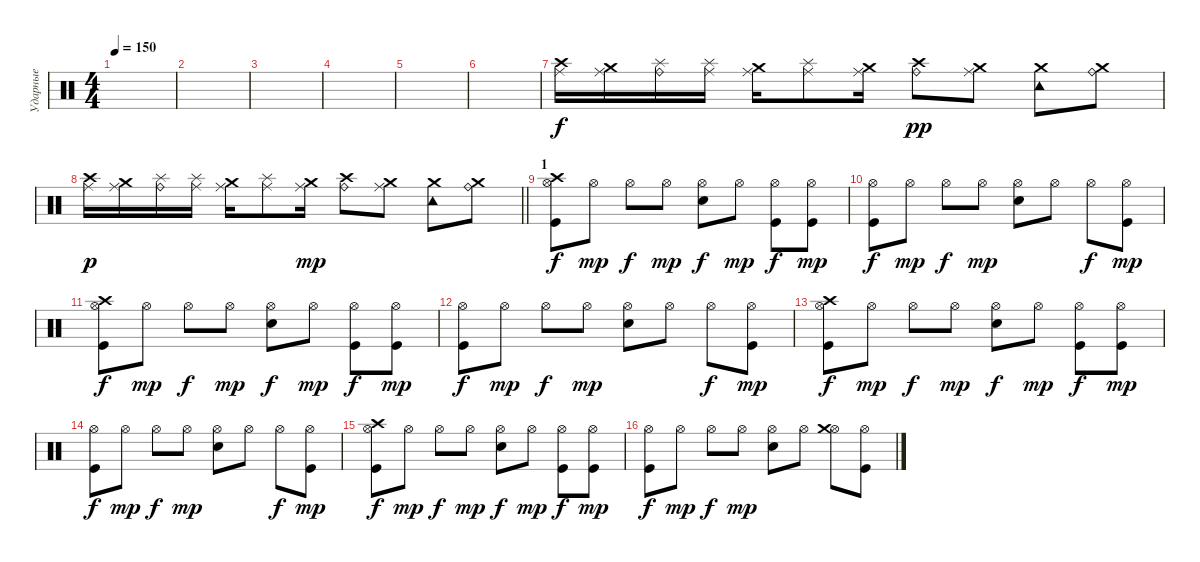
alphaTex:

\track ("Ударные" "Ударные") {instrument percussion}
\staff {score}
\articulation defaults
\ts (4 4)
\tempo 150
\clef neutral
\ks c
|
|
|
|
|
|
("Ride (middle)" "Crash high (hit)").16 ("Crash medium (hit)" "Ride (middle)").16 ("Splash (hit)" "Ride (bell)").16 ("Splash (hit)" "Ride (middle)").16 ("Crash medium (hit)" "Ride (middle)").16 ("Splash (hit)" "Ride (middle)").8 ("Crash medium (hit)" "Ride (middle)").16 ("Crash high (hit)" "Ride (bell)").8{dy pp} ("Crash medium (hit)" "Ride (middle)").8 ("Crash medium (hit)" "Tambourine (hit)").8 ("Crash medium (hit)" "Ride (bell)").8 |
\barLineRight lightlight
("Ride (middle)" "Crash high (hit)").16{dy p} ("Crash medium (hit)" "Ride (middle)").16 ("Splash (hit)" "Ride (bell)").16 ("Splash (hit)" "Ride (middle)").16 ("Crash medium (hit)" "Ride (middle)").16 ("Splash (hit)" "Ride (middle)").8 ("Crash medium (hit)" "Ride (middle)").16{dy mp} ("Crash high (hit)" "Ride (bell)").8 ("Crash medium (hit)" "Ride (middle)").8 ("Crash medium (hit)" "Tambourine (hit)").8 ("Crash medium (hit)" "Ride (bell)").8 |
\section ("" "1")
("Crash high (hit)" "Hi-Hat (open)" "Kick (hit)").8{dy f} "Hi-Hat (open)".8{dy mp} "Hi-Hat (open)".8{dy f} "Hi-Hat (open)".8{dy mp} ("Snare (hit) 2" "Hi-Hat (open)").8{dy f} "Hi-Hat (open)".8{dy mp} ("Hi-Hat (open)" "Kick (hit)").8{dy f} ("Hi-Hat (open)" "Kick (hit)").8{dy mp} |
("Hi-Hat (open)" "Kick (hit)").8{dy f} "Hi-Hat (open)".8{dy mp} "Hi-Hat (open)".8{dy f} "Hi-Hat (open)".8{dy mp} ("Snare (hit) 2" "Hi-Hat (open)").8 "Hi-Hat (open)".8 "Hi-Hat (open)".8{dy f} ("Hi-Hat (open)" "Kick (hit)").8{dy mp} |
("Crash high (hit)" "Hi-Hat (open)" "Kick (hit)").8{dy f} "Hi-Hat (open)".8{dy mp} "Hi-Hat (open)".8{dy f} "Hi-Hat (open)".8{dy mp} ("Snare (hit) 2" "Hi-Hat (open)").8{dy f} "Hi-Hat (open)".8{dy mp} ("Hi-Hat (open)" "Kick (hit)").8{dy f} ("Hi-Hat (open)" "Kick (hit)").8{dy mp} |
("Hi-Hat (open)" "Kick (hit)").8{dy f} "Hi-Hat (open)".8{dy mp} "Hi-Hat (open)".8{dy f} "Hi-Hat (open)".8{dy mp} ("Snare (hit) 2" "Hi-Hat (open)").8 "Hi-Hat (open)".8 "Hi-Hat (open)".8{dy f} ("Hi-Hat (open)" "Kick (hit)").8{dy mp} |
("Crash high (hit)" "Hi-Hat (open)" "Kick (hit)").8{dy f} "Hi-Hat (open)".8{dy mp} "Hi-Hat (open)".8{dy f} "Hi-Hat (open)".8{dy mp} ("Snare (hit) 2" "Hi-Hat (open)").8{dy f} "Hi-Hat (open)".8{dy mp} ("Hi-Hat (open)" "Kick (hit)").8{dy f} ("Hi-Hat (open)" "Kick (hit)").8{dy mp} |
("Hi-Hat (open)" "Kick (hit)").8{dy f} "Hi-Hat (open)".8{dy mp} "Hi-Hat (open)".8{dy f} "Hi-Hat (open)".8{dy mp} ("Snare (hit) 2" "Hi-Hat (open)").8 "Hi-Hat (open)".8 "Hi-Hat (open)".8{dy f} ("Hi-Hat (open)" "Kick (hit)").8{dy mp} |
("Crash high (hit)" "Hi-Hat (open)" "Kick (hit)").8{dy f} "Hi-Hat (open)".8{dy mp} "Hi-Hat (open)".8{dy f} "Hi-Hat (open)".8{dy mp} ("Snare (hit) 2" "Hi-Hat (open)").8{dy f} "Hi-Hat (open)".8{dy mp} ("Hi-Hat (open)" "Kick (hit)").8{dy f} ("Hi-Hat (open)" "Kick (hit)").8{dy mp} |
("Hi-Hat (open)" "Kick (hit)").8{dy f} "Hi-Hat (open)".8{dy mp} "Hi-Hat (open)".8{dy f} "Hi-Hat (open)".8{dy mp} ("Snare (hit) 2" "Hi-Hat (open)").8 "Hi-Hat (open)".8 ("Hi-Hat (open)" "Crash medium (hit)").8 ("Hi-Hat (open)" "Kick (hit)").8
